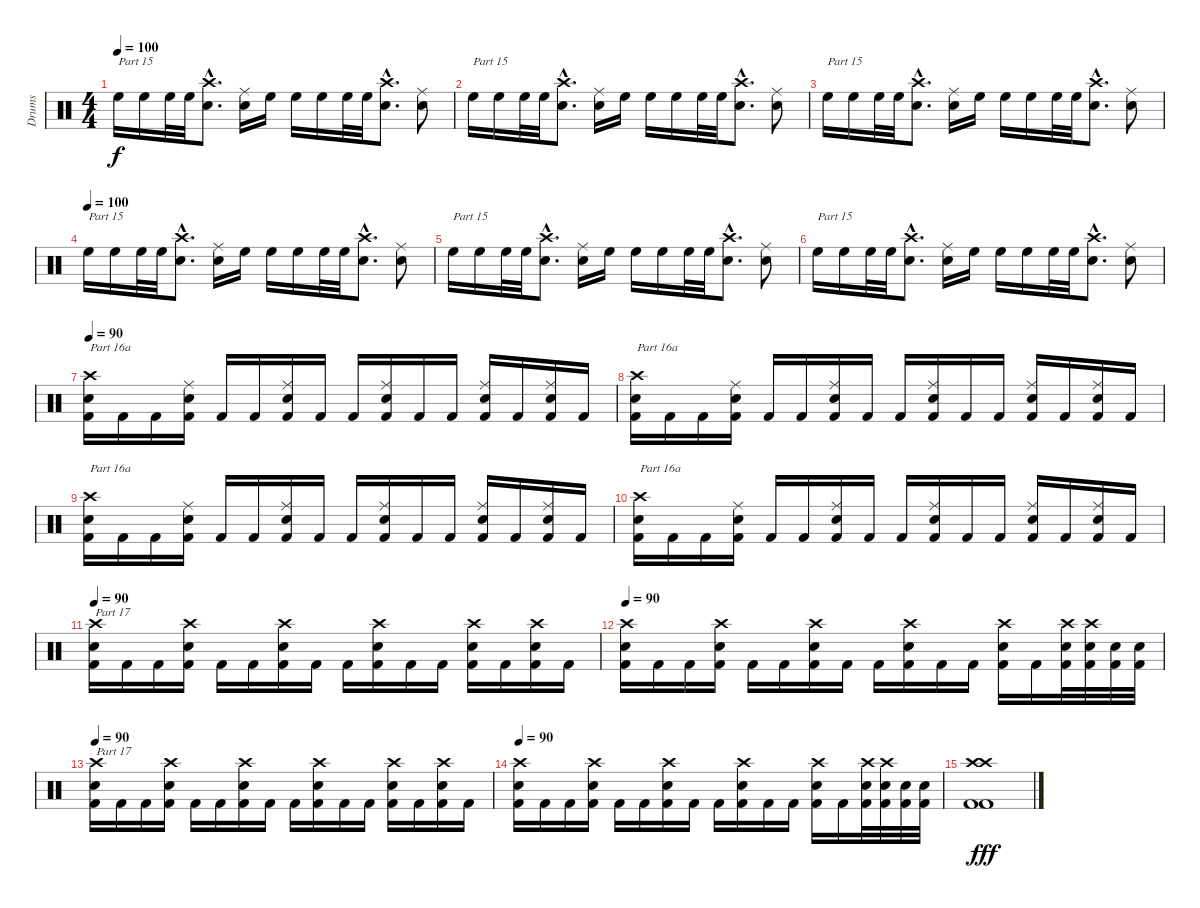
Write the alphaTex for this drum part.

\track ("Drums" "Drums") {instrument percussion}
\staff {score}
\articulation defaults
\ts (4 4)
\tempo 100
\clef neutral
\ks c "High Floor Tom (hit)".16{txt "Part 15" dy f} "High Floor Tom (hit)".16 "High Floor Tom (hit)".32 "High Floor Tom (hit)".32
("Crash high (hit)"{hac} "Snare (hit) 2"{hac}).8{d} ("Ride (middle)" "Snare (hit) 2").16 "High Floor Tom (hit)".16 "High Floor Tom (hit)".16 "High Floor Tom (hit)".16 "High Floor Tom (hit)".32 "High Floor Tom (hit)".32 ("Crash high (hit)"{hac} "Snare (hit) 2"{hac}).8{d} ("Ride (middle)" "Snare (hit) 2").8 |
"High Floor Tom (hit)".16{txt "Part 15"} "High Floor Tom (hit)".16 "High Floor Tom (hit)".32 "High Floor Tom (hit)".32 ("Crash high (hit)"{hac} "Snare (hit) 2"{hac}).8{d} ("Ride (middle)" "Snare (hit) 2").16 "High Floor Tom (hit)".16 "High Floor Tom (hit)".16 "High Floor Tom (hit)".16 "High Floor Tom (hit)".32 "High Floor Tom (hit)".32 ("Crash high (hit)"{hac} "Snare (hit) 2"{hac}).8{d} ("Ride (middle)" "Snare (hit) 2").8 |
"High Floor Tom (hit)".16{txt "Part 15"} "High Floor Tom (hit)".16 "High Floor Tom (hit)".32 "High Floor Tom (hit)".32 ("Crash high (hit)"{hac} "Snare (hit) 2"{hac}).8{d} ("Ride (middle)" "Snare (hit) 2").16 "High Floor Tom (hit)".16 "High Floor Tom (hit)".16 "High Floor Tom (hit)".16 "High Floor Tom (hit)".32 "High Floor Tom (hit)".32 ("Crash high (hit)"{hac} "Snare (hit) 2"{hac}).8{d} ("Ride (middle)" "Snare (hit) 2").8 |
\tempo (100)
"High Floor Tom (hit)".16{txt "Part 15"} "High Floor Tom (hit)".16 "High Floor Tom (hit)".32 "High Floor Tom (hit)".32 ("Crash high (hit)"{hac} "Snare (hit) 2"{hac}).8{d} ("Ride (middle)" "Snare (hit) 2").16 "High Floor Tom (hit)".16 "High Floor Tom (hit)".16 "High Floor Tom (hit)".16 "High Floor Tom (hit)".32 "High Floor Tom (hit)".32 ("Crash high (hit)"{hac} "Snare (hit) 2"{hac}).8{d} ("Ride (middle)" "Snare (hit) 2").8 |
"High Floor Tom (hit)".16{txt "Part 15"} "High Floor Tom (hit)".16 "High Floor Tom (hit)".32 "High Floor Tom (hit)".32 ("Crash high (hit)"{hac} "Snare (hit) 2"{hac}).8{d} ("Ride (middle)" "Snare (hit) 2").16 "High Floor Tom (hit)".16 "High Floor Tom (hit)".16 "High Floor Tom (hit)".16 "High Floor Tom (hit)".32 "High Floor Tom (hit)".32 ("Crash high (hit)"{hac} "Snare (hit) 2"{hac}).8{d} ("Ride (middle)" "Snare (hit) 2").8 |
"High Floor Tom (hit)".16{txt "Part 15"} "High Floor Tom (hit)".16 "High Floor Tom (hit)".32 "High Floor Tom (hit)".32 ("Crash high (hit)"{hac} "Snare (hit) 2"{hac}).8{d} ("Ride (middle)" "Snare (hit) 2").16 "High Floor Tom (hit)".16 "High Floor Tom (hit)".16 "High Floor Tom (hit)".16 "High Floor Tom (hit)".32 "High Floor Tom (hit)".32 ("Crash high (hit)"{hac} "Snare (hit) 2"{hac}).8{d} ("Ride (middle)" "Snare (hit) 2").8 |
\tempo 90
("Crash high (hit)" "Snare (hit) 2" "Kick (hit) 2").16{txt "Part 16a"} "Kick (hit) 2".16 "Kick (hit) 2".16 ("Ride (middle)" "Snare (hit) 2" "Kick (hit) 2").16 "Kick (hit) 2".16 "Kick (hit) 2".16 ("Ride (middle)" "Snare (hit) 2" "Kick (hit) 2").16 "Kick (hit) 2".16 "Kick (hit) 2".16 ("Ride (middle)" "Snare (hit) 2" "Kick (hit) 2").16 "Kick (hit) 2".16 "Kick (hit) 2".16 ("Ride (middle)" "Snare (hit) 2" "Kick (hit) 2").16 "Kick (hit) 2".16 ("Ride (middle)" "Snare (hit) 2" "Kick (hit) 2").16 "Kick (hit) 2".16 |
("Crash high (hit)" "Snare (hit) 2" "Kick (hit) 2").16{txt "Part 16a"} "Kick (hit) 2".16 "Kick (hit) 2".16 ("Ride (middle)" "Snare (hit) 2" "Kick (hit) 2").16 "Kick (hit) 2".16 "Kick (hit) 2".16 ("Ride (middle)" "Snare (hit) 2" "Kick (hit) 2").16 "Kick (hit) 2".16 "Kick (hit) 2".16 ("Ride (middle)" "Snare (hit) 2" "Kick (hit) 2").16 "Kick (hit) 2".16 "Kick (hit) 2".16 ("Ride (middle)" "Snare (hit) 2" "Kick (hit) 2").16 "Kick (hit) 2".16 ("Ride (middle)" "Snare (hit) 2" "Kick (hit) 2").16 "Kick (hit) 2".16 |
("Crash high (hit)" "Snare (hit) 2" "Kick (hit) 2").16{txt "Part 16a"} "Kick (hit) 2".16 "Kick (hit) 2".16 ("Ride (middle)" "Snare (hit) 2" "Kick (hit) 2").16 "Kick (hit) 2".16 "Kick (hit) 2".16 ("Ride (middle)" "Snare (hit) 2" "Kick (hit) 2").16 "Kick (hit) 2".16 "Kick (hit) 2".16 ("Ride (middle)" "Snare (hit) 2" "Kick (hit) 2").16 "Kick (hit) 2".16 "Kick (hit) 2".16 ("Ride (middle)" "Snare (hit) 2" "Kick (hit) 2").16 "Kick (hit) 2".16 ("Ride (middle)" "Snare (hit) 2" "Kick (hit) 2").16 "Kick (hit) 2".16 |
("Crash high (hit)" "Snare (hit) 2" "Kick (hit) 2").16{txt "Part 16a"} "Kick (hit) 2".16 "Kick (hit) 2".16 ("Ride (middle)" "Snare (hit) 2" "Kick (hit) 2").16 "Kick (hit) 2".16 "Kick (hit) 2".16 ("Ride (middle)" "Snare (hit) 2" "Kick (hit) 2").16 "Kick (hit) 2".16 "Kick (hit) 2".16 ("Ride (middle)" "Snare (hit) 2" "Kick (hit) 2").16 "Kick (hit) 2".16 "Kick (hit) 2".16 ("Ride (middle)" "Snare (hit) 2" "Kick (hit) 2").16 "Kick (hit) 2".16 ("Ride (middle)" "Snare (hit) 2" "Kick (hit) 2").16 "Kick (hit) 2".16 |
\tempo 90
("Crash high (hit)" "Snare (hit) 2" "Kick (hit) 2").16{txt "Part 17"} "Kick (hit) 2".16 "Kick (hit) 2".16 ("Crash high (hit)" "Snare (hit) 2" "Kick (hit) 2").16 "Kick (hit) 2".16 "Kick (hit) 2".16 ("Crash high (hit)" "Snare (hit) 2" "Kick (hit) 2").16 "Kick (hit) 2".16 "Kick (hit) 2".16 ("Crash high (hit)" "Snare (hit) 2" "Kick (hit) 2").16 "Kick (hit) 2".16 "Kick (hit) 2".16 ("Crash high (hit)" "Snare (hit) 2" "Kick (hit) 2").16 "Kick (hit) 2".16 ("Crash high (hit)" "Snare (hit) 2" "Kick (hit) 2").16 "Kick (hit) 2".16 |
\tempo 90
("Crash high (hit)" "Snare (hit) 2" "Kick (hit) 2").16 "Kick (hit) 2".16 "Kick (hit) 2".16 ("Crash high (hit)" "Snare (hit) 2" "Kick (hit) 2").16 "Kick (hit) 2".16 "Kick (hit) 2".16 ("Crash high (hit)" "Snare (hit) 2" "Kick (hit) 2").16 "Kick (hit) 2".16 "Kick (hit) 2".16 ("Crash high (hit)" "Snare (hit) 2" "Kick (hit) 2").16 "Kick (hit) 2".16 "Kick (hit) 2".16 ("Crash high (hit)" "Snare (hit) 2" "Kick (hit) 2").16 "Kick (hit) 2".16 ("Crash high (hit)" "Snare (hit) 2" "Kick (hit) 2").32 ("Crash high (hit)" "Snare (hit) 2" "Kick (hit) 2").32 ("Snare (hit) 2" "Kick (hit) 2").32 ("Snare (hit) 2" "Kick (hit) 2").32 |
\tempo 90
("Crash high (hit)" "Snare (hit) 2" "Kick (hit) 2").16{txt "Part 17"} "Kick (hit) 2".16 "Kick (hit) 2".16 ("Crash high (hit)" "Snare (hit) 2" "Kick (hit) 2").16 "Kick (hit) 2".16 "Kick (hit) 2".16 ("Crash high (hit)" "Snare (hit) 2" "Kick (hit) 2").16 "Kick (hit) 2".16 "Kick (hit) 2".16 ("Crash high (hit)" "Snare (hit) 2" "Kick (hit) 2").16 "Kick (hit) 2".16 "Kick (hit) 2".16 ("Crash high (hit)" "Snare (hit) 2" "Kick (hit) 2").16 "Kick (hit) 2".16 ("Crash high (hit)" "Snare (hit) 2" "Kick (hit) 2").16 "Kick (hit) 2".16 |
\tempo 90
("Crash high (hit)" "Snare (hit) 2" "Kick (hit) 2").16 "Kick (hit) 2".16 "Kick (hit) 2".16 ("Crash high (hit)" "Snare (hit) 2" "Kick (hit) 2").16 "Kick (hit) 2".16 "Kick (hit) 2".16 ("Crash high (hit)" "Snare (hit) 2" "Kick (hit) 2").16 "Kick (hit) 2".16 "Kick (hit) 2".16 ("Crash high (hit)" "Snare (hit) 2" "Kick (hit) 2").16 "Kick (hit) 2".16 "Kick (hit) 2".16 ("Crash high (hit)" "Snare (hit) 2" "Kick (hit) 2").16 "Kick (hit) 2".16 ("Crash high (hit)" "Snare (hit) 2" "Kick (hit) 2").32 ("Crash high (hit)" "Snare (hit) 2" "Kick (hit) 2").32 ("Snare (hit) 2" "Kick (hit) 2").32 ("Snare (hit) 2" "Kick (hit) 2").32 |
("Crash high (hit)" "Kick (hit) 2" "Crash high (hit)" "Kick (hit) 2").1{dy fff}
